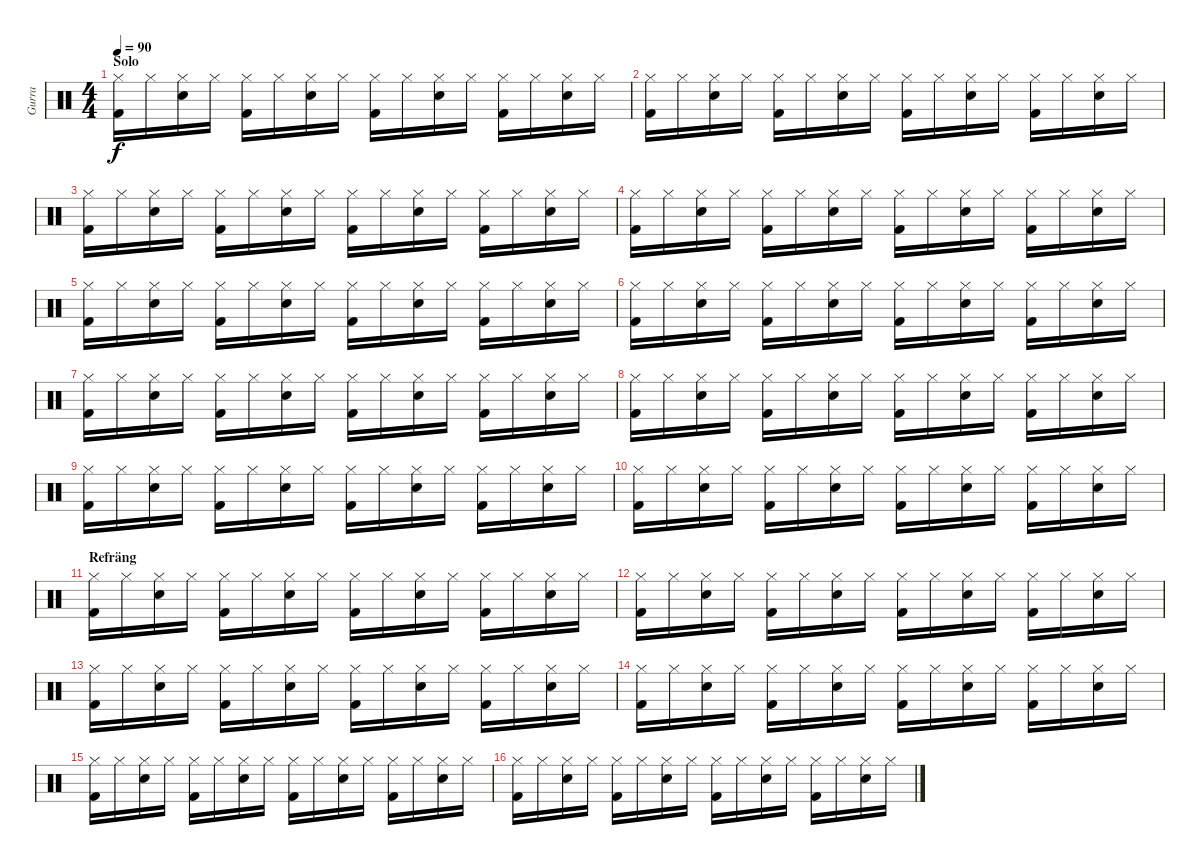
\track ("Gurra" "Gurra") {instrument percussion}
\staff {score}
\articulation defaults
\ts (4 4)
\section ("" "Solo")
\tempo 90
\clef neutral
\ks c
("Kick (hit) 2" "Hi-Hat (closed)").16{dy f} "Hi-Hat (closed)".16 ("Snare (hit) 2" "Hi-Hat (closed)").16 "Hi-Hat (closed)".16 ("Kick (hit) 2" "Hi-Hat (closed)").16 "Hi-Hat (closed)".16 ("Snare (hit) 2" "Hi-Hat (closed)").16 "Hi-Hat (closed)".16 ("Kick (hit) 2" "Hi-Hat (closed)").16 "Hi-Hat (closed)".16 ("Snare (hit) 2" "Hi-Hat (closed)").16 "Hi-Hat (closed)".16 ("Kick (hit) 2" "Hi-Hat (closed)").16 "Hi-Hat (closed)".16 ("Snare (hit) 2" "Hi-Hat (closed)").16 "Hi-Hat (closed)".16 |
("Kick (hit) 2" "Hi-Hat (closed)").16 "Hi-Hat (closed)".16 ("Snare (hit) 2" "Hi-Hat (closed)").16 "Hi-Hat (closed)".16 ("Kick (hit) 2" "Hi-Hat (closed)").16 "Hi-Hat (closed)".16 ("Snare (hit) 2" "Hi-Hat (closed)").16 "Hi-Hat (closed)".16 ("Kick (hit) 2" "Hi-Hat (closed)").16 "Hi-Hat (closed)".16 ("Snare (hit) 2" "Hi-Hat (closed)").16 "Hi-Hat (closed)".16 ("Kick (hit) 2" "Hi-Hat (closed)").16 "Hi-Hat (closed)".16 ("Snare (hit) 2" "Hi-Hat (closed)").16 "Hi-Hat (closed)".16 |
("Kick (hit) 2" "Hi-Hat (closed)").16 "Hi-Hat (closed)".16 ("Snare (hit) 2" "Hi-Hat (closed)").16 "Hi-Hat (closed)".16 ("Kick (hit) 2" "Hi-Hat (closed)").16 "Hi-Hat (closed)".16 ("Snare (hit) 2" "Hi-Hat (closed)").16 "Hi-Hat (closed)".16 ("Kick (hit) 2" "Hi-Hat (closed)").16 "Hi-Hat (closed)".16 ("Snare (hit) 2" "Hi-Hat (closed)").16 "Hi-Hat (closed)".16 ("Kick (hit) 2" "Hi-Hat (closed)").16 "Hi-Hat (closed)".16 ("Snare (hit) 2" "Hi-Hat (closed)").16 "Hi-Hat (closed)".16 |
("Kick (hit) 2" "Hi-Hat (closed)").16 "Hi-Hat (closed)".16 ("Snare (hit) 2" "Hi-Hat (closed)").16 "Hi-Hat (closed)".16 ("Kick (hit) 2" "Hi-Hat (closed)").16 "Hi-Hat (closed)".16 ("Snare (hit) 2" "Hi-Hat (closed)").16 "Hi-Hat (closed)".16 ("Kick (hit) 2" "Hi-Hat (closed)").16 "Hi-Hat (closed)".16 ("Snare (hit) 2" "Hi-Hat (closed)").16 "Hi-Hat (closed)".16 ("Kick (hit) 2" "Hi-Hat (closed)").16 "Hi-Hat (closed)".16 ("Snare (hit) 2" "Hi-Hat (closed)").16 "Hi-Hat (closed)".16 |
("Kick (hit) 2" "Hi-Hat (closed)").16 "Hi-Hat (closed)".16 ("Snare (hit) 2" "Hi-Hat (closed)").16 "Hi-Hat (closed)".16 ("Kick (hit) 2" "Hi-Hat (closed)").16 "Hi-Hat (closed)".16 ("Snare (hit) 2" "Hi-Hat (closed)").16 "Hi-Hat (closed)".16 ("Kick (hit) 2" "Hi-Hat (closed)").16 "Hi-Hat (closed)".16 ("Snare (hit) 2" "Hi-Hat (closed)").16 "Hi-Hat (closed)".16 ("Kick (hit) 2" "Hi-Hat (closed)").16 "Hi-Hat (closed)".16 ("Snare (hit) 2" "Hi-Hat (closed)").16 "Hi-Hat (closed)".16 |
("Kick (hit) 2" "Hi-Hat (closed)").16 "Hi-Hat (closed)".16 ("Snare (hit) 2" "Hi-Hat (closed)").16 "Hi-Hat (closed)".16 ("Kick (hit) 2" "Hi-Hat (closed)").16 "Hi-Hat (closed)".16 ("Snare (hit) 2" "Hi-Hat (closed)").16 "Hi-Hat (closed)".16 ("Kick (hit) 2" "Hi-Hat (closed)").16 "Hi-Hat (closed)".16 ("Snare (hit) 2" "Hi-Hat (closed)").16 "Hi-Hat (closed)".16 ("Kick (hit) 2" "Hi-Hat (closed)").16 "Hi-Hat (closed)".16 ("Snare (hit) 2" "Hi-Hat (closed)").16 "Hi-Hat (closed)".16 |
("Kick (hit) 2" "Hi-Hat (closed)").16 "Hi-Hat (closed)".16 ("Snare (hit) 2" "Hi-Hat (closed)").16 "Hi-Hat (closed)".16 ("Kick (hit) 2" "Hi-Hat (closed)").16 "Hi-Hat (closed)".16 ("Snare (hit) 2" "Hi-Hat (closed)").16 "Hi-Hat (closed)".16 ("Kick (hit) 2" "Hi-Hat (closed)").16 "Hi-Hat (closed)".16 ("Snare (hit) 2" "Hi-Hat (closed)").16 "Hi-Hat (closed)".16 ("Kick (hit) 2" "Hi-Hat (closed)").16 "Hi-Hat (closed)".16 ("Snare (hit) 2" "Hi-Hat (closed)").16 "Hi-Hat (closed)".16 |
("Kick (hit) 2" "Hi-Hat (closed)").16 "Hi-Hat (closed)".16 ("Snare (hit) 2" "Hi-Hat (closed)").16 "Hi-Hat (closed)".16 ("Kick (hit) 2" "Hi-Hat (closed)").16 "Hi-Hat (closed)".16 ("Snare (hit) 2" "Hi-Hat (closed)").16 "Hi-Hat (closed)".16 ("Kick (hit) 2" "Hi-Hat (closed)").16 "Hi-Hat (closed)".16 ("Snare (hit) 2" "Hi-Hat (closed)").16 "Hi-Hat (closed)".16 ("Kick (hit) 2" "Hi-Hat (closed)").16 "Hi-Hat (closed)".16 ("Snare (hit) 2" "Hi-Hat (closed)").16 "Hi-Hat (closed)".16 |
("Kick (hit) 2" "Hi-Hat (closed)").16 "Hi-Hat (closed)".16 ("Snare (hit) 2" "Hi-Hat (closed)").16 "Hi-Hat (closed)".16 ("Kick (hit) 2" "Hi-Hat (closed)").16 "Hi-Hat (closed)".16 ("Snare (hit) 2" "Hi-Hat (closed)").16 "Hi-Hat (closed)".16 ("Kick (hit) 2" "Hi-Hat (closed)").16 "Hi-Hat (closed)".16 ("Snare (hit) 2" "Hi-Hat (closed)").16 "Hi-Hat (closed)".16 ("Kick (hit) 2" "Hi-Hat (closed)").16 "Hi-Hat (closed)".16 ("Snare (hit) 2" "Hi-Hat (closed)").16 "Hi-Hat (closed)".16 |
("Kick (hit) 2" "Hi-Hat (closed)").16 "Hi-Hat (closed)".16 ("Snare (hit) 2" "Hi-Hat (closed)").16 "Hi-Hat (closed)".16 ("Kick (hit) 2" "Hi-Hat (closed)").16 "Hi-Hat (closed)".16 ("Snare (hit) 2" "Hi-Hat (closed)").16 "Hi-Hat (closed)".16 ("Kick (hit) 2" "Hi-Hat (closed)").16 "Hi-Hat (closed)".16 ("Snare (hit) 2" "Hi-Hat (closed)").16 "Hi-Hat (closed)".16 ("Kick (hit) 2" "Hi-Hat (closed)").16 "Hi-Hat (closed)".16 ("Snare (hit) 2" "Hi-Hat (closed)").16 "Hi-Hat (closed)".16 |
\section ("" "Refräng")
("Kick (hit) 2" "Hi-Hat (closed)").16 "Hi-Hat (closed)".16 ("Snare (hit) 2" "Hi-Hat (closed)").16 "Hi-Hat (closed)".16 ("Kick (hit) 2" "Hi-Hat (closed)").16 "Hi-Hat (closed)".16 ("Snare (hit) 2" "Hi-Hat (closed)").16 "Hi-Hat (closed)".16 ("Kick (hit) 2" "Hi-Hat (closed)").16 "Hi-Hat (closed)".16 ("Snare (hit) 2" "Hi-Hat (closed)").16 "Hi-Hat (closed)".16 ("Kick (hit) 2" "Hi-Hat (closed)").16 "Hi-Hat (closed)".16 ("Snare (hit) 2" "Hi-Hat (closed)").16 "Hi-Hat (closed)".16 |
("Kick (hit) 2" "Hi-Hat (closed)").16 "Hi-Hat (closed)".16 ("Snare (hit) 2" "Hi-Hat (closed)").16 "Hi-Hat (closed)".16 ("Kick (hit) 2" "Hi-Hat (closed)").16 "Hi-Hat (closed)".16 ("Snare (hit) 2" "Hi-Hat (closed)").16 "Hi-Hat (closed)".16 ("Kick (hit) 2" "Hi-Hat (closed)").16 "Hi-Hat (closed)".16 ("Snare (hit) 2" "Hi-Hat (closed)").16 "Hi-Hat (closed)".16 ("Kick (hit) 2" "Hi-Hat (closed)").16 "Hi-Hat (closed)".16 ("Snare (hit) 2" "Hi-Hat (closed)").16 "Hi-Hat (closed)".16 |
("Kick (hit) 2" "Hi-Hat (closed)").16 "Hi-Hat (closed)".16 ("Snare (hit) 2" "Hi-Hat (closed)").16 "Hi-Hat (closed)".16 ("Kick (hit) 2" "Hi-Hat (closed)").16 "Hi-Hat (closed)".16 ("Snare (hit) 2" "Hi-Hat (closed)").16 "Hi-Hat (closed)".16 ("Kick (hit) 2" "Hi-Hat (closed)").16 "Hi-Hat (closed)".16 ("Snare (hit) 2" "Hi-Hat (closed)").16 "Hi-Hat (closed)".16 ("Kick (hit) 2" "Hi-Hat (closed)").16 "Hi-Hat (closed)".16 ("Snare (hit) 2" "Hi-Hat (closed)").16 "Hi-Hat (closed)".16 |
("Kick (hit) 2" "Hi-Hat (closed)").16 "Hi-Hat (closed)".16 ("Snare (hit) 2" "Hi-Hat (closed)").16 "Hi-Hat (closed)".16 ("Kick (hit) 2" "Hi-Hat (closed)").16 "Hi-Hat (closed)".16 ("Snare (hit) 2" "Hi-Hat (closed)").16 "Hi-Hat (closed)".16 ("Kick (hit) 2" "Hi-Hat (closed)").16 "Hi-Hat (closed)".16 ("Snare (hit) 2" "Hi-Hat (closed)").16 "Hi-Hat (closed)".16 ("Kick (hit) 2" "Hi-Hat (closed)").16 "Hi-Hat (closed)".16 ("Snare (hit) 2" "Hi-Hat (closed)").16 "Hi-Hat (closed)".16 |
("Kick (hit) 2" "Hi-Hat (closed)").16 "Hi-Hat (closed)".16 ("Snare (hit) 2" "Hi-Hat (closed)").16 "Hi-Hat (closed)".16 ("Kick (hit) 2" "Hi-Hat (closed)").16 "Hi-Hat (closed)".16 ("Snare (hit) 2" "Hi-Hat (closed)").16 "Hi-Hat (closed)".16 ("Kick (hit) 2" "Hi-Hat (closed)").16 "Hi-Hat (closed)".16 ("Snare (hit) 2" "Hi-Hat (closed)").16 "Hi-Hat (closed)".16 ("Kick (hit) 2" "Hi-Hat (closed)").16 "Hi-Hat (closed)".16 ("Snare (hit) 2" "Hi-Hat (closed)").16 "Hi-Hat (closed)".16 |
("Kick (hit) 2" "Hi-Hat (closed)").16 "Hi-Hat (closed)".16 ("Snare (hit) 2" "Hi-Hat (closed)").16 "Hi-Hat (closed)".16 ("Kick (hit) 2" "Hi-Hat (closed)").16 "Hi-Hat (closed)".16 ("Snare (hit) 2" "Hi-Hat (closed)").16 "Hi-Hat (closed)".16 ("Kick (hit) 2" "Hi-Hat (closed)").16 "Hi-Hat (closed)".16 ("Snare (hit) 2" "Hi-Hat (closed)").16 "Hi-Hat (closed)".16 ("Kick (hit) 2" "Hi-Hat (closed)").16 "Hi-Hat (closed)".16 ("Snare (hit) 2" "Hi-Hat (closed)").16 "Hi-Hat (closed)".16
